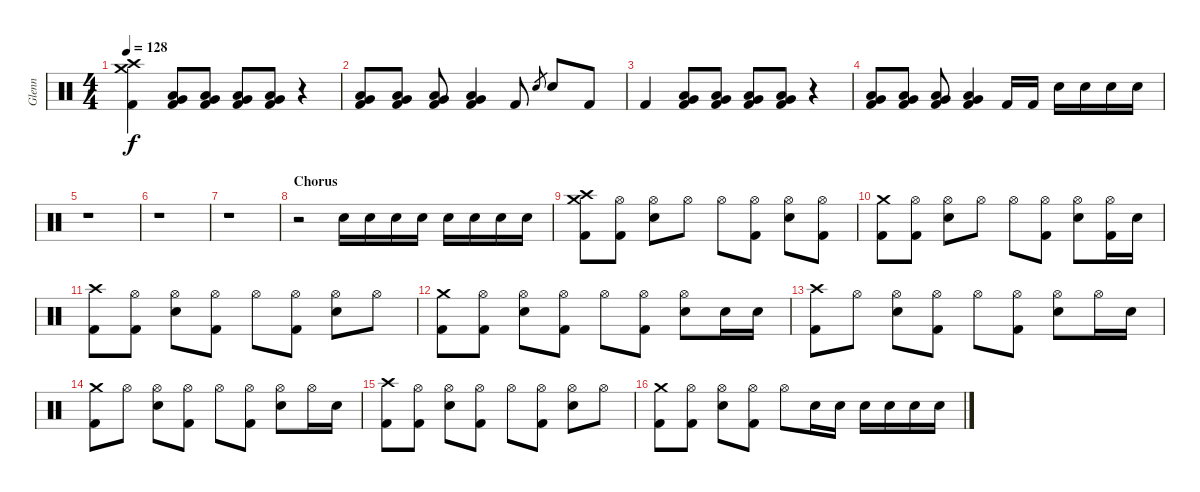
\track ("Glenn" "Glenn") {instrument percussion}
\staff {score}
\articulation defaults
\ts (4 4)
\tempo 128
\clef neutral
\ks c
("Crash medium (hit)" "Crash high (hit)" "Kick (hit) 2").4{dy f} ("Low Tom (hit)" "Very Low Tom (hit)" "Kick (hit) 2").8 ("Low Tom (hit)" "Very Low Tom (hit)" "Kick (hit) 2").8 ("Low Tom (hit)" "Very Low Tom (hit)" "Kick (hit) 2").8 ("Low Tom (hit)" "Very Low Tom (hit)" "Kick (hit) 2").8 r.4 |
("Low Tom (hit)" "Very Low Tom (hit)" "Kick (hit) 2").8 ("Low Tom (hit)" "Very Low Tom (hit)" "Kick (hit) 2").8 ("Low Tom (hit)" "Very Low Tom (hit)" "Kick (hit) 2").8 ("Low Tom (hit)" "Very Low Tom (hit)" "Kick (hit) 2").4 "Kick (hit) 2".8 "Electric Snare (hit)".8{gr} "Electric Snare (hit)".8 "Kick (hit) 2".8 |
"Kick (hit) 2".4 ("Low Tom (hit)" "Very Low Tom (hit)" "Kick (hit) 2").8 ("Low Tom (hit)" "Very Low Tom (hit)" "Kick (hit) 2").8 ("Low Tom (hit)" "Very Low Tom (hit)" "Kick (hit) 2").8 ("Low Tom (hit)" "Very Low Tom (hit)" "Kick (hit) 2").8 r.4 |
("Low Tom (hit)" "Very Low Tom (hit)" "Kick (hit) 2").8 ("Low Tom (hit)" "Very Low Tom (hit)" "Kick (hit) 2").8 ("Low Tom (hit)" "Very Low Tom (hit)" "Kick (hit) 2").8 ("Low Tom (hit)" "Very Low Tom (hit)" "Kick (hit) 2").4 "Kick (hit) 2".16 "Kick (hit) 2".16 "Electric Snare (hit)".16 "Electric Snare (hit)".16 "Electric Snare (hit)".16 "Electric Snare (hit)".16 |
r.1 |
r.1 |
r.1 |
\section ("" "Chorus")
r.2 "Electric Snare (hit)".16 "Electric Snare (hit)".16 "Electric Snare (hit)".16 "Electric Snare (hit)".16 "Electric Snare (hit)".16 "Electric Snare (hit)".16 "Electric Snare (hit)".16 "Electric Snare (hit)".16 |
("Crash medium (hit)" "Crash high (hit)" "Kick (hit) 2").8 ("Hi-Hat (open)" "Kick (hit) 2").8 ("Hi-Hat (open)" "Electric Snare (hit)").8 "Hi-Hat (open)".8 "Hi-Hat (open)".8 ("Hi-Hat (open)" "Kick (hit) 2").8 ("Hi-Hat (open)" "Electric Snare (hit)").8 ("Hi-Hat (open)" "Kick (hit) 2").8 |
("Crash medium (hit)" "Kick (hit) 2").8 ("Hi-Hat (open)" "Kick (hit) 2").8 ("Hi-Hat (open)" "Electric Snare (hit)").8 "Hi-Hat (open)".8 "Hi-Hat (open)".8 ("Hi-Hat (open)" "Kick (hit) 2").8 ("Hi-Hat (open)" "Electric Snare (hit)").8 ("Hi-Hat (open)" "Kick (hit) 2").16 "Electric Snare (hit)".16 |
("Crash high (hit)" "Kick (hit) 2").8 ("Hi-Hat (open)" "Kick (hit) 2").8 ("Hi-Hat (open)" "Electric Snare (hit)").8 ("Hi-Hat (open)" "Kick (hit) 2").8 "Hi-Hat (open)".8 ("Hi-Hat (open)" "Kick (hit) 2").8 ("Hi-Hat (open)" "Electric Snare (hit)").8 "Hi-Hat (open)".8 |
("Crash medium (hit)" "Kick (hit) 2").8 ("Hi-Hat (open)" "Kick (hit) 2").8 ("Hi-Hat (open)" "Electric Snare (hit)").8 ("Hi-Hat (open)" "Kick (hit) 2").8 "Hi-Hat (open)".8 ("Hi-Hat (open)" "Kick (hit) 2").8 ("Hi-Hat (open)" "Electric Snare (hit)").8 "Electric Snare (hit)".16 "Electric Snare (hit)".16 |
("Crash high (hit)" "Kick (hit) 2").8 "Hi-Hat (open)".8 ("Hi-Hat (open)" "Electric Snare (hit)").8 ("Hi-Hat (open)" "Kick (hit) 2").8 "Hi-Hat (open)".8 ("Hi-Hat (open)" "Kick (hit) 2").8 ("Hi-Hat (open)" "Electric Snare (hit)").8 "Hi-Hat (open)".16 "Electric Snare (hit)".16 |
("Crash medium (hit)" "Kick (hit) 2").8 "Hi-Hat (open)".8 ("Hi-Hat (open)" "Electric Snare (hit)").8 ("Hi-Hat (open)" "Kick (hit) 2").8 "Hi-Hat (open)".8 ("Hi-Hat (open)" "Kick (hit) 2").8 ("Hi-Hat (open)" "Electric Snare (hit)").8 "Hi-Hat (open)".16 "Electric Snare (hit)".16 |
("Crash high (hit)" "Kick (hit) 2").8 ("Hi-Hat (open)" "Kick (hit) 2").8 ("Hi-Hat (open)" "Electric Snare (hit)").8 ("Hi-Hat (open)" "Kick (hit) 2").8 "Hi-Hat (open)".8 ("Hi-Hat (open)" "Kick (hit) 2").8 ("Hi-Hat (open)" "Electric Snare (hit)").8 "Hi-Hat (open)".8 |
("Crash medium (hit)" "Kick (hit) 2").8 ("Hi-Hat (open)" "Kick (hit) 2").8 ("Hi-Hat (open)" "Electric Snare (hit)").8 ("Hi-Hat (open)" "Kick (hit) 2").8 "Hi-Hat (open)".8 "Electric Snare (hit)".16 "Electric Snare (hit)".16 "Electric Snare (hit)".16 "Electric Snare (hit)".16 "Electric Snare (hit)".16 "Electric Snare (hit)".16
